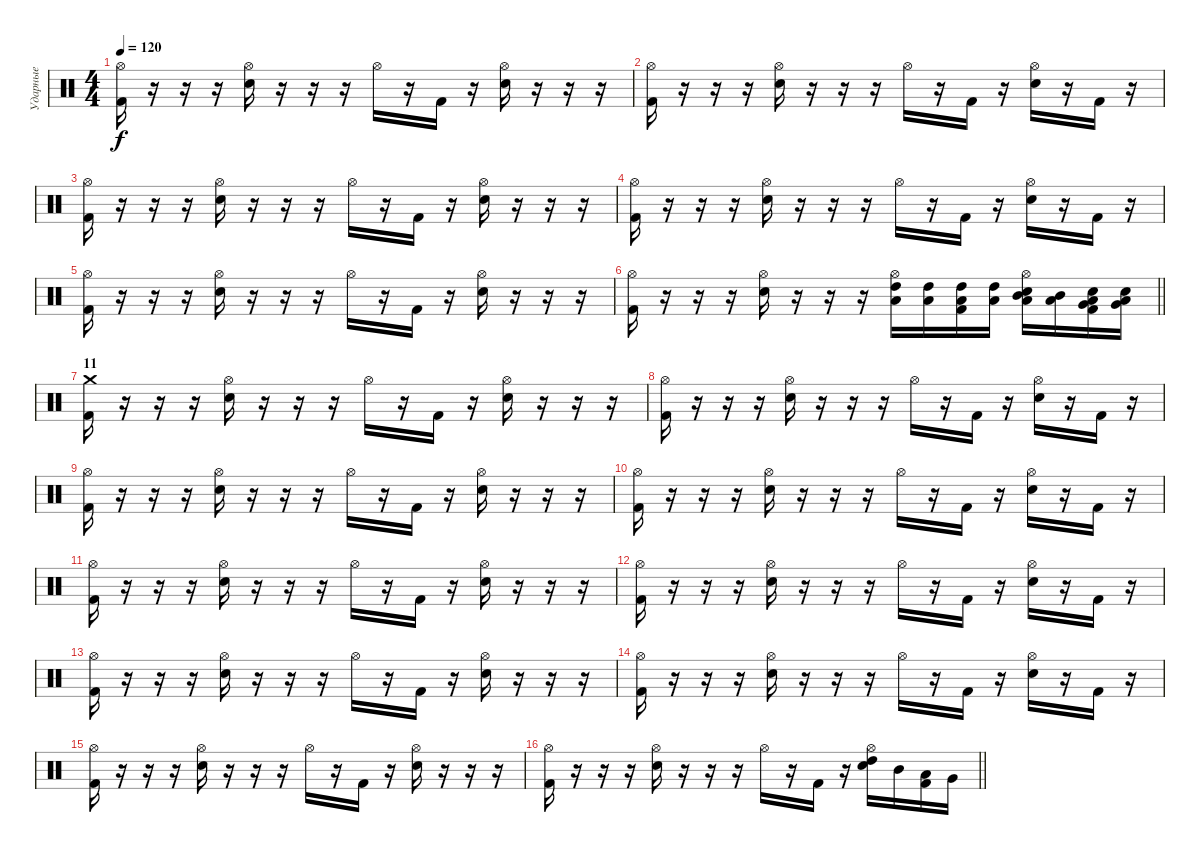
\track ("Ударные" "Ударные") {instrument percussion}
\staff {score}
\articulation defaults
\ts (4 4)
\tempo 120
\clef neutral
\ks c
("Hi-Hat (open)" "Kick (hit) 2").16{dy f} r.16 r.16 r.16 ("Hi-Hat (open)" "Snare (hit) 2").16 r.16 r.16 r.16 "Hi-Hat (open)".16 r.16 "Kick (hit) 2".16 r.16 ("Hi-Hat (open)" "Snare (hit) 2").16 r.16 r.16 r.16 |
("Hi-Hat (open)" "Kick (hit) 2").16 r.16 r.16 r.16 ("Hi-Hat (open)" "Snare (hit) 2").16 r.16 r.16 r.16 "Hi-Hat (open)".16 r.16 "Kick (hit) 2".16 r.16 ("Hi-Hat (open)" "Snare (hit) 2").16 r.16 "Kick (hit) 2".16 r.16 |
("Hi-Hat (open)" "Kick (hit) 2").16 r.16 r.16 r.16 ("Hi-Hat (open)" "Snare (hit) 2").16 r.16 r.16 r.16 "Hi-Hat (open)".16 r.16 "Kick (hit) 2".16 r.16 ("Hi-Hat (open)" "Snare (hit) 2").16 r.16 r.16 r.16 |
("Hi-Hat (open)" "Kick (hit) 2").16 r.16 r.16 r.16 ("Hi-Hat (open)" "Snare (hit) 2").16 r.16 r.16 r.16 "Hi-Hat (open)".16 r.16 "Kick (hit) 2".16 r.16 ("Hi-Hat (open)" "Snare (hit) 2").16 r.16 "Kick (hit) 2".16 r.16 |
("Hi-Hat (open)" "Kick (hit) 2").16 r.16 r.16 r.16 ("Hi-Hat (open)" "Snare (hit) 2").16 r.16 r.16 r.16 "Hi-Hat (open)".16 r.16 "Kick (hit) 2".16 r.16 ("Hi-Hat (open)" "Snare (hit) 2").16 r.16 r.16 r.16 |
\barLineRight lightlight
("Hi-Hat (open)" "Kick (hit) 2").16 r.16 r.16 r.16 ("Hi-Hat (open)" "Snare (hit) 2").16 r.16 r.16 r.16 ("Hi-Hat (open)" "High Tom (hit)" "Low Tom (hit)").16 ("High Tom (hit)" "Low Tom (hit)").16 ("High Tom (hit)" "Low Tom (hit)" "Kick (hit) 2").16 ("High Tom (hit)" "Low Tom (hit)").16 ("Hi-Hat (open)" "Snare (hit) 2" "Mid Tom (hit)" "Low Floor Tom (hit)").16 ("Mid Tom (hit)" "Low Floor Tom (hit)").16 ("Snare (hit) 2" "Very Low Tom (hit)" "Low Floor Tom (hit)" "Kick (hit) 2").16 ("Snare (hit) 2" "Very Low Tom (hit)" "Low Floor Tom (hit)").16 |
\section ("" "11")
("Crash medium (hit)" "Kick (hit) 2").16 r.16 r.16 r.16 ("Hi-Hat (open)" "Snare (hit) 2").16 r.16 r.16 r.16 "Hi-Hat (open)".16 r.16 "Kick (hit) 2".16 r.16 ("Hi-Hat (open)" "Snare (hit) 2").16 r.16 r.16 r.16 |
("Hi-Hat (open)" "Kick (hit) 2").16 r.16 r.16 r.16 ("Hi-Hat (open)" "Snare (hit) 2").16 r.16 r.16 r.16 "Hi-Hat (open)".16 r.16 "Kick (hit) 2".16 r.16 ("Hi-Hat (open)" "Snare (hit) 2").16 r.16 "Kick (hit) 2".16 r.16 |
("Hi-Hat (open)" "Kick (hit) 2").16 r.16 r.16 r.16 ("Hi-Hat (open)" "Snare (hit) 2").16 r.16 r.16 r.16 "Hi-Hat (open)".16 r.16 "Kick (hit) 2".16 r.16 ("Hi-Hat (open)" "Snare (hit) 2").16 r.16 r.16 r.16 |
("Hi-Hat (open)" "Kick (hit) 2").16 r.16 r.16 r.16 ("Hi-Hat (open)" "Snare (hit) 2").16 r.16 r.16 r.16 "Hi-Hat (open)".16 r.16 "Kick (hit) 2".16 r.16 ("Hi-Hat (open)" "Snare (hit) 2").16 r.16 "Kick (hit) 2".16 r.16 |
("Hi-Hat (open)" "Kick (hit) 2").16 r.16 r.16 r.16 ("Hi-Hat (open)" "Snare (hit) 2").16 r.16 r.16 r.16 "Hi-Hat (open)".16 r.16 "Kick (hit) 2".16 r.16 ("Hi-Hat (open)" "Snare (hit) 2").16 r.16 r.16 r.16 |
("Hi-Hat (open)" "Kick (hit) 2").16 r.16 r.16 r.16 ("Hi-Hat (open)" "Snare (hit) 2").16 r.16 r.16 r.16 "Hi-Hat (open)".16 r.16 "Kick (hit) 2".16 r.16 ("Hi-Hat (open)" "Snare (hit) 2").16 r.16 "Kick (hit) 2".16 r.16 |
("Hi-Hat (open)" "Kick (hit) 2").16 r.16 r.16 r.16 ("Hi-Hat (open)" "Snare (hit) 2").16 r.16 r.16 r.16 "Hi-Hat (open)".16 r.16 "Kick (hit) 2".16 r.16 ("Hi-Hat (open)" "Snare (hit) 2").16 r.16 r.16 r.16 |
("Hi-Hat (open)" "Kick (hit) 2").16 r.16 r.16 r.16 ("Hi-Hat (open)" "Snare (hit) 2").16 r.16 r.16 r.16 "Hi-Hat (open)".16 r.16 "Kick (hit) 2".16 r.16 ("Hi-Hat (open)" "Snare (hit) 2").16 r.16 "Kick (hit) 2".16 r.16 |
("Hi-Hat (open)" "Kick (hit) 2").16 r.16 r.16 r.16 ("Hi-Hat (open)" "Snare (hit) 2").16 r.16 r.16 r.16 "Hi-Hat (open)".16 r.16 "Kick (hit) 2".16 r.16 ("Hi-Hat (open)" "Snare (hit) 2").16 r.16 r.16 r.16 |
\barLineRight lightlight
("Hi-Hat (open)" "Kick (hit) 2").16 r.16 r.16 r.16 ("Hi-Hat (open)" "Snare (hit) 2").16 r.16 r.16 r.16 "Hi-Hat (open)".16 r.16 "Kick (hit) 2".16 r.16 ("Hi-Hat (open)" "Snare (hit) 2" "High Tom (hit)").16 "Mid Tom (hit)".16 ("Low Tom (hit)" "Kick (hit) 2").16 "Very Low Tom (hit)".16
